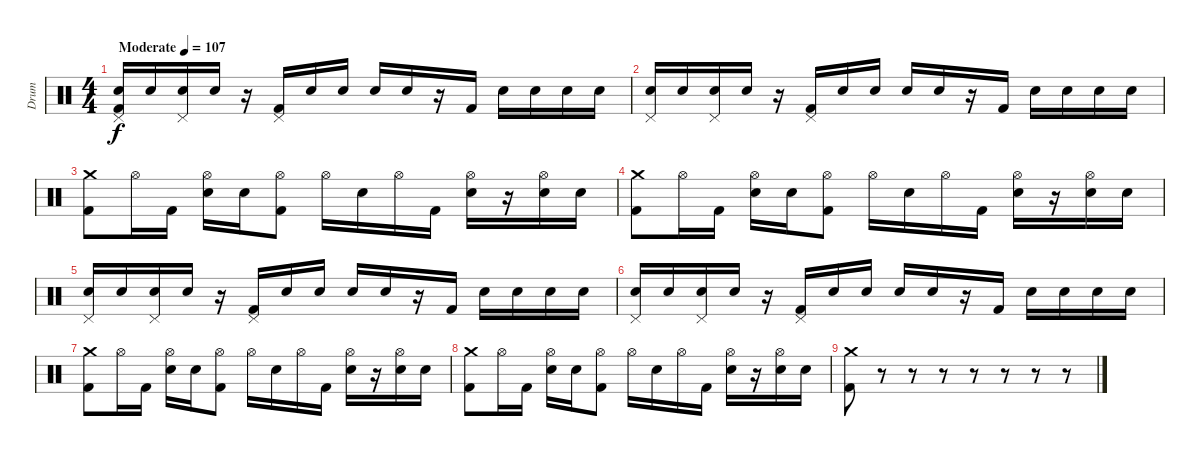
\track ("Drum" "Drum") {instrument percussion}
\staff {score}
\articulation defaults
\ts (4 4)
\tempo (107 "Moderate")
\clef neutral
\ks c
("Pedal Hi-Hat (hit)" "Kick (hit) 2" "Electric Snare (hit)").16{dy f} "Electric Snare (hit)".16 ("Pedal Hi-Hat (hit)" "Electric Snare (hit)").16 "Electric Snare (hit)".16 r.16 ("Pedal Hi-Hat (hit)" "Kick (hit) 2").16 "Electric Snare (hit)".16 "Electric Snare (hit)".16 "Electric Snare (hit)".16 "Electric Snare (hit)".16 r.16 "Kick (hit) 2".16 "Electric Snare (hit)".16 "Electric Snare (hit)".16 "Electric Snare (hit)".16 "Electric Snare (hit)".16 |
("Pedal Hi-Hat (hit)" "Electric Snare (hit)").16 "Electric Snare (hit)".16 ("Pedal Hi-Hat (hit)" "Electric Snare (hit)").16 "Electric Snare (hit)".16 r.16 ("Pedal Hi-Hat (hit)" "Kick (hit) 2").16 "Electric Snare (hit)".16 "Electric Snare (hit)".16 "Electric Snare (hit)".16 "Electric Snare (hit)".16 r.16 "Kick (hit) 2".16 "Electric Snare (hit)".16 "Electric Snare (hit)".16 "Electric Snare (hit)".16 "Electric Snare (hit)".16 |
("Crash medium (hit)" "Kick (hit) 2").8 "Hi-Hat (open)".16 "Kick (hit) 2".16 ("Hi-Hat (open)" "Electric Snare (hit)").16 "Electric Snare (hit)".16 ("Hi-Hat (open)" "Kick (hit) 2").8 "Hi-Hat (open)".16 "Electric Snare (hit)".16 "Hi-Hat (open)".16 "Kick (hit) 2".16 ("Hi-Hat (open)" "Electric Snare (hit)").16 r.16 ("Hi-Hat (open)" "Electric Snare (hit)").16 "Electric Snare (hit)".16 |
("Crash medium (hit)" "Kick (hit) 2").8 "Hi-Hat (open)".16 "Kick (hit) 2".16 ("Hi-Hat (open)" "Electric Snare (hit)").16 "Electric Snare (hit)".16 ("Hi-Hat (open)" "Kick (hit) 2").8 "Hi-Hat (open)".16 "Electric Snare (hit)".16 "Hi-Hat (open)".16 "Kick (hit) 2".16 ("Hi-Hat (open)" "Electric Snare (hit)").16 r.16 ("Hi-Hat (open)" "Electric Snare (hit)").16 "Electric Snare (hit)".16 |
("Pedal Hi-Hat (hit)" "Electric Snare (hit)").16 "Electric Snare (hit)".16 ("Pedal Hi-Hat (hit)" "Electric Snare (hit)").16 "Electric Snare (hit)".16 r.16 ("Pedal Hi-Hat (hit)" "Kick (hit) 2").16 "Electric Snare (hit)".16 "Electric Snare (hit)".16 "Electric Snare (hit)".16 "Electric Snare (hit)".16 r.16 "Kick (hit) 2".16 "Electric Snare (hit)".16 "Electric Snare (hit)".16 "Electric Snare (hit)".16 "Electric Snare (hit)".16 |
("Pedal Hi-Hat (hit)" "Electric Snare (hit)").16 "Electric Snare (hit)".16 ("Pedal Hi-Hat (hit)" "Electric Snare (hit)").16 "Electric Snare (hit)".16 r.16 ("Pedal Hi-Hat (hit)" "Kick (hit) 2").16 "Electric Snare (hit)".16 "Electric Snare (hit)".16 "Electric Snare (hit)".16 "Electric Snare (hit)".16 r.16 "Kick (hit) 2".16 "Electric Snare (hit)".16 "Electric Snare (hit)".16 "Electric Snare (hit)".16 "Electric Snare (hit)".16 |
("Crash medium (hit)" "Kick (hit) 2").8 "Hi-Hat (open)".16 "Kick (hit) 2".16 ("Hi-Hat (open)" "Electric Snare (hit)").16 "Electric Snare (hit)".16 ("Hi-Hat (open)" "Kick (hit) 2").8 "Hi-Hat (open)".16 "Electric Snare (hit)".16 "Hi-Hat (open)".16 "Kick (hit) 2".16 ("Hi-Hat (open)" "Electric Snare (hit)").16 r.16 ("Hi-Hat (open)" "Electric Snare (hit)").16 "Electric Snare (hit)".16 |
("Crash medium (hit)" "Kick (hit) 2").8 "Hi-Hat (open)".16 "Kick (hit) 2".16 ("Hi-Hat (open)" "Electric Snare (hit)").16 "Electric Snare (hit)".16 ("Hi-Hat (open)" "Kick (hit) 2").8 "Hi-Hat (open)".16 "Electric Snare (hit)".16 "Hi-Hat (open)".16 "Kick (hit) 2".16 ("Hi-Hat (open)" "Electric Snare (hit)").16 r.16 ("Hi-Hat (open)" "Electric Snare (hit)").16 "Electric Snare (hit)".16 |
("Kick (hit) 2" "Crash medium (hit)").8 r.8 r.8 r.8 r.8 r.8 r.8 r.8
